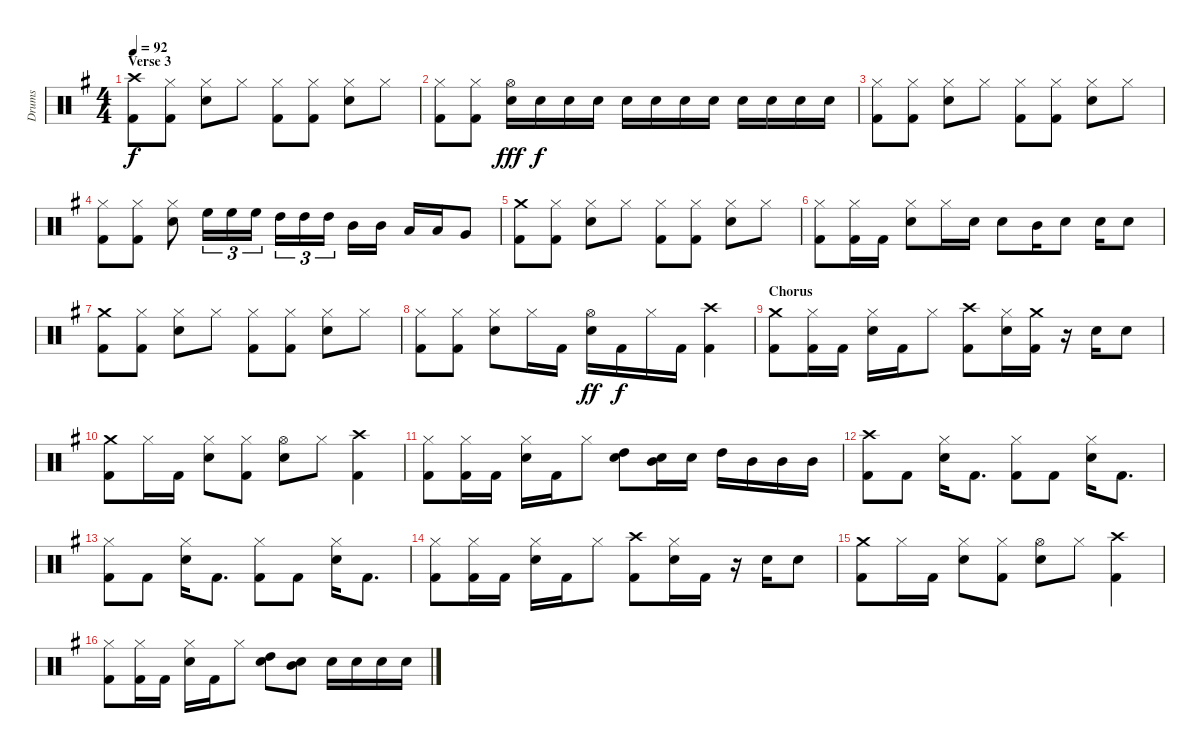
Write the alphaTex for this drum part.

\track ("Drums" "Drums") {instrument percussion}
\staff {score}
\articulation defaults
\ts (4 4)
\section ("" "Verse 3")
\tempo 92
\clef neutral
\ks eminor
("Crash high (hit)" "Kick (hit) 2").8{dy f} ("Hi-Hat (closed)" "Kick (hit) 2").8 ("Hi-Hat (closed)" "Snare (hit) 2").8 "Hi-Hat (closed)".8 ("Hi-Hat (closed)" "Kick (hit) 2").8 ("Hi-Hat (closed)" "Kick (hit) 2").8 ("Hi-Hat (closed)" "Snare (hit) 2").8 "Hi-Hat (closed)".8 |
("Hi-Hat (closed)" "Kick (hit) 2").8 ("Hi-Hat (closed)" "Kick (hit) 2").8 ("Hi-Hat (open)" "Snare (hit) 2").16{dy fff} "Snare (hit) 2".16{dy f} "Snare (hit) 2".16 "Snare (hit) 2".16 "Snare (hit) 2".16 "Snare (hit) 2".16 "Snare (hit) 2".16 "Snare (hit) 2".16 "Snare (hit) 2".16 "Snare (hit) 2".16 "Snare (hit) 2".16 "Snare (hit) 2".16 |
("Hi-Hat (closed)" "Kick (hit) 2").8 ("Hi-Hat (closed)" "Kick (hit) 2").8 ("Hi-Hat (closed)" "Snare (hit) 2").8 "Hi-Hat (closed)".8 ("Hi-Hat (closed)" "Kick (hit) 2").8 ("Hi-Hat (closed)" "Kick (hit) 2").8 ("Hi-Hat (closed)" "Snare (hit) 2").8 "Hi-Hat (closed)".8 |
("Hi-Hat (closed)" "Kick (hit) 2").8 ("Hi-Hat (closed)" "Kick (hit) 2").8 ("Hi-Hat (closed)" "Snare (hit) 2").8 "High Floor Tom (hit)".16{tu (3 2)} "High Floor Tom (hit)".16{tu (3 2)} "High Floor Tom (hit)".16{tu (3 2)} "High Tom (hit)".16{tu (3 2)} "High Tom (hit)".16{tu (3 2)} "High Tom (hit)".16{tu (3 2)} "Mid Tom (hit)".16 "Mid Tom (hit)".16 "Low Tom (hit)".16 "Low Tom (hit)".16 "Very Low Tom (hit)".8 |
("Crash medium (hit)" "Kick (hit) 2").8 ("Hi-Hat (closed)" "Kick (hit) 2").8 ("Hi-Hat (closed)" "Snare (hit) 2").8 "Hi-Hat (closed)".8 ("Hi-Hat (closed)" "Kick (hit) 2").8 ("Hi-Hat (closed)" "Kick (hit) 2").8 ("Hi-Hat (closed)" "Snare (hit) 2").8 "Hi-Hat (closed)".8 |
("Hi-Hat (closed)" "Kick (hit) 2").8 ("Hi-Hat (closed)" "Kick (hit) 2").16 "Kick (hit) 2".16 ("Hi-Hat (closed)" "Snare (hit) 2").8 "Hi-Hat (closed)".16 "Snare (hit) 2".16 "Snare (hit) 2".8 "Mid Tom (hit)".16 "Snare (hit) 2".8 "Snare (hit) 2".16 "Snare (hit) 2".8 |
("Crash medium (hit)" "Kick (hit) 2").8 ("Hi-Hat (closed)" "Kick (hit) 2").8 ("Hi-Hat (closed)" "Snare (hit) 2").8 "Hi-Hat (closed)".8 ("Hi-Hat (closed)" "Kick (hit) 2").8 ("Hi-Hat (closed)" "Kick (hit) 2").8 ("Hi-Hat (closed)" "Snare (hit) 2").8 "Hi-Hat (closed)".8 |
("Hi-Hat (closed)" "Kick (hit) 2").8 ("Hi-Hat (closed)" "Kick (hit) 2").8 ("Hi-Hat (closed)" "Snare (hit) 2").8 "Hi-Hat (closed)".16 "Kick (hit) 2".16 ("Hi-Hat (open)" "Snare (hit) 2").16{dy ff} "Kick (hit) 2".16{dy f} "Hi-Hat (closed)".16 "Kick (hit) 2".16 ("Crash high (hit)" "Kick (hit) 2").4 |
\section ("" "Chorus")
("Crash medium (hit)" "Kick (hit) 2").8 ("Hi-Hat (closed)" "Kick (hit) 2").16 "Kick (hit) 2".16 ("Hi-Hat (closed)" "Snare (hit) 2").16 "Kick (hit) 2".16 "Hi-Hat (closed)".8 ("Crash high (hit)" "Kick (hit) 2").8 ("Hi-Hat (closed)" "Snare (hit) 2").16 ("Crash medium (hit)" "Kick (hit) 2").16 r.16 "Snare (hit) 2".16 "Snare (hit) 2".8 |
("Crash medium (hit)" "Kick (hit) 2").8 "Hi-Hat (closed)".16 "Kick (hit) 2".16 ("Hi-Hat (closed)" "Snare (hit) 2").8 ("Hi-Hat (closed)" "Kick (hit) 2").8 ("Hi-Hat (open)" "Snare (hit) 2").8 "Hi-Hat (closed)".8 ("Crash high (hit)" "Kick (hit) 2").4 |
("Hi-Hat (closed)" "Kick (hit) 2").8 ("Hi-Hat (closed)" "Kick (hit) 2").16 "Kick (hit) 2".16 ("Hi-Hat (closed)" "Snare (hit) 2").16 "Kick (hit) 2".16 "Hi-Hat (closed)".8 ("High Tom (hit)" "Snare (hit) 2").8 ("Mid Tom (hit)" "Snare (hit) 2").16 "Snare (hit) 2".16 "High Tom (hit)".16 "Mid Tom (hit)".16 "Mid Tom (hit)".16 "Mid Tom (hit)".16 |
("Crash high (hit)" "Kick (hit) 2").8 "Kick (hit) 2".8 ("Hi-Hat (closed)" "Snare (hit) 2").16 "Kick (hit) 2".8{d} ("Hi-Hat (closed)" "Kick (hit) 2").8 "Kick (hit) 2".8 ("Hi-Hat (closed)" "Snare (hit) 2").16 "Kick (hit) 2".8{d} |
("Hi-Hat (closed)" "Kick (hit) 2").8 "Kick (hit) 2".8 ("Hi-Hat (closed)" "Snare (hit) 2").16 "Kick (hit) 2".8{d} ("Hi-Hat (closed)" "Kick (hit) 2").8 "Kick (hit) 2".8 ("Hi-Hat (closed)" "Snare (hit) 2").16 "Kick (hit) 2".8{d} |
("Hi-Hat (closed)" "Kick (hit) 2").8 ("Hi-Hat (closed)" "Kick (hit) 2").16 "Kick (hit) 2".16 ("Hi-Hat (closed)" "Snare (hit) 2").16 "Kick (hit) 2".16 "Hi-Hat (closed)".8 ("Crash high (hit)" "Kick (hit) 2").8 ("Hi-Hat (closed)" "Snare (hit) 2").16 "Kick (hit) 2".16 r.16 "Snare (hit) 2".16 "Snare (hit) 2".8 |
("Crash medium (hit)" "Kick (hit) 2").8 "Hi-Hat (closed)".16 "Kick (hit) 2".16 ("Hi-Hat (closed)" "Snare (hit) 2").8 ("Hi-Hat (closed)" "Kick (hit) 2").8 ("Hi-Hat (open)" "Snare (hit) 2").8 "Hi-Hat (closed)".8 ("Crash high (hit)" "Kick (hit) 2").4 |
("Hi-Hat (closed)" "Kick (hit) 2").8 ("Hi-Hat (closed)" "Kick (hit) 2").16 "Kick (hit) 2".16 ("Hi-Hat (closed)" "Snare (hit) 2").16 "Kick (hit) 2".16 "Hi-Hat (closed)".8 ("High Tom (hit)" "Snare (hit) 2").8 ("Mid Tom (hit)" "Snare (hit) 2").8 "Snare (hit) 2".16 "Snare (hit) 2".16 "Snare (hit) 2".16 "Snare (hit) 2".16
